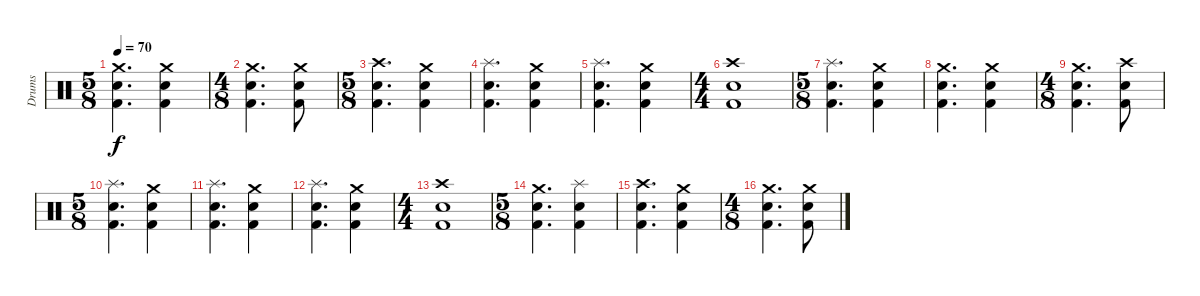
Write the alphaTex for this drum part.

\track ("Drums" "Drums") {instrument percussion}
\staff {score}
\articulation defaults
\ts (5 8)
\tempo 70
\clef neutral
\ks c
("Crash medium (hit)" "Electric Snare (hit)" "Kick (hit) 2").4{d dy f} ("Crash medium (hit)" "Electric Snare (hit)" "Kick (hit) 2").4 |
\ts (4 8)
("Crash medium (hit)" "Electric Snare (hit)" "Kick (hit) 2").4{d} ("Crash medium (hit)" "Electric Snare (hit)" "Kick (hit) 2").8 |
\ts (5 8)
("Crash high (hit)" "Electric Snare (hit)" "Kick (hit) 2").4{d} ("Crash medium (hit)" "Electric Snare (hit)" "Kick (hit) 2").4 |
("Splash (hit)" "Electric Snare (hit)" "Kick (hit) 2").4{d} ("Crash medium (hit)" "Electric Snare (hit)" "Kick (hit) 2").4 |
("Splash (hit)" "Electric Snare (hit)" "Kick (hit) 2").4{d} ("Crash medium (hit)" "Electric Snare (hit)" "Kick (hit) 2").4 |
\ts (4 4)
("Crash high (hit)" "Electric Snare (hit)" "Kick (hit) 2").1 |
\ts (5 8)
("Splash (hit)" "Electric Snare (hit)" "Kick (hit) 2").4{d} ("Crash medium (hit)" "Electric Snare (hit)" "Kick (hit) 2").4 |
("Crash medium (hit)" "Electric Snare (hit)" "Kick (hit) 2").4{d} ("Crash medium (hit)" "Electric Snare (hit)" "Kick (hit) 2").4 |
\ts (4 8)
("Crash medium (hit)" "Electric Snare (hit)" "Kick (hit) 2").4{d} ("Crash high (hit)" "Electric Snare (hit)" "Kick (hit) 2").8 |
\ts (5 8)
("Splash (hit)" "Electric Snare (hit)" "Kick (hit) 2").4{d} ("Crash medium (hit)" "Electric Snare (hit)" "Kick (hit) 2").4 |
("Splash (hit)" "Electric Snare (hit)" "Kick (hit) 2").4{d} ("Crash medium (hit)" "Electric Snare (hit)" "Kick (hit) 2").4 |
("Splash (hit)" "Electric Snare (hit)" "Kick (hit) 2").4{d} ("Crash medium (hit)" "Electric Snare (hit)" "Kick (hit) 2").4 |
\ts (4 4)
("Crash high (hit)" "Electric Snare (hit)" "Kick (hit) 2").1 |
\ts (5 8)
("Crash medium (hit)" "Electric Snare (hit)" "Kick (hit) 2").4{d} ("Splash (hit)" "Electric Snare (hit)" "Kick (hit) 2").4 |
("Crash high (hit)" "Electric Snare (hit)" "Kick (hit) 2").4{d} ("Crash medium (hit)" "Electric Snare (hit)" "Kick (hit) 2").4 |
\ts (4 8)
("Crash medium (hit)" "Electric Snare (hit)" "Kick (hit) 2").4{d} ("Crash medium (hit)" "Electric Snare (hit)" "Kick (hit) 2").8
